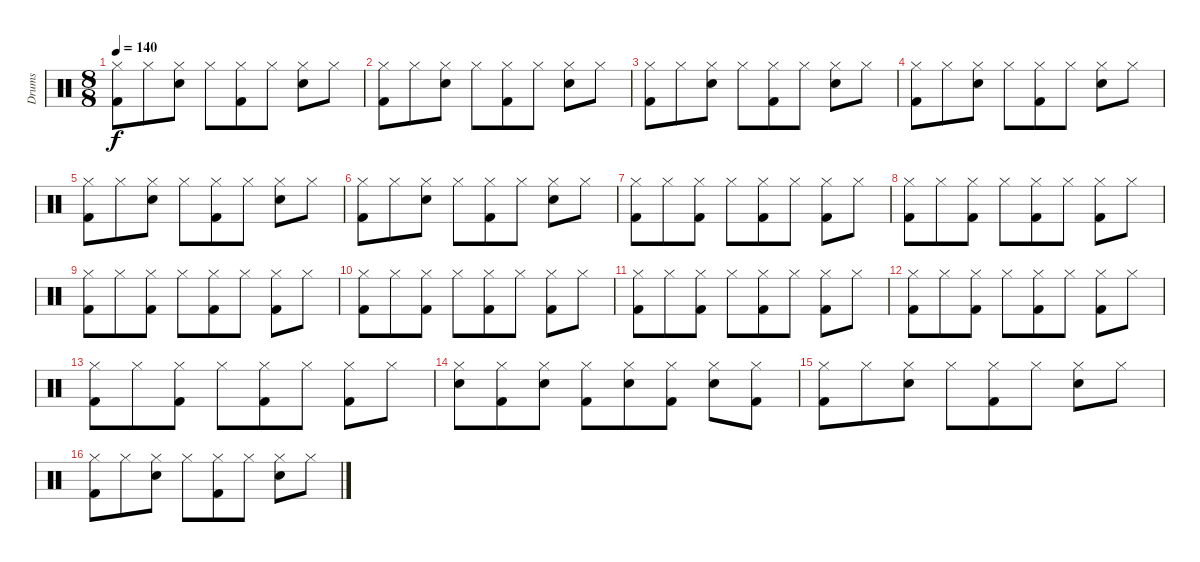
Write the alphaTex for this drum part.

\track ("Drums" "Drums") {instrument percussion}
\staff {score}
\articulation defaults
\ts (8 8)
\tempo 140
\clef neutral
\ks c
("Hi-Hat (closed)" "Kick (hit) 2").8{dy f} "Hi-Hat (closed)".8 ("Hi-Hat (closed)" "Snare (hit) 2").8 "Hi-Hat (closed)".8 ("Hi-Hat (closed)" "Kick (hit) 2").8 "Hi-Hat (closed)".8 ("Hi-Hat (closed)" "Snare (hit) 2").8 "Hi-Hat (closed)".8 |
("Hi-Hat (closed)" "Kick (hit) 2").8 "Hi-Hat (closed)".8 ("Hi-Hat (closed)" "Snare (hit) 2").8 "Hi-Hat (closed)".8 ("Hi-Hat (closed)" "Kick (hit) 2").8 "Hi-Hat (closed)".8 ("Hi-Hat (closed)" "Snare (hit) 2").8 "Hi-Hat (closed)".8 |
("Hi-Hat (closed)" "Kick (hit) 2").8 "Hi-Hat (closed)".8 ("Hi-Hat (closed)" "Snare (hit) 2").8 "Hi-Hat (closed)".8 ("Hi-Hat (closed)" "Kick (hit) 2").8 "Hi-Hat (closed)".8 ("Hi-Hat (closed)" "Snare (hit) 2").8 "Hi-Hat (closed)".8 |
("Hi-Hat (closed)" "Kick (hit) 2").8 "Hi-Hat (closed)".8 ("Hi-Hat (closed)" "Snare (hit) 2").8 "Hi-Hat (closed)".8 ("Hi-Hat (closed)" "Kick (hit) 2").8 "Hi-Hat (closed)".8 ("Hi-Hat (closed)" "Snare (hit) 2").8 "Hi-Hat (closed)".8 |
("Hi-Hat (closed)" "Kick (hit) 2").8 "Hi-Hat (closed)".8 ("Hi-Hat (closed)" "Snare (hit) 2").8 "Hi-Hat (closed)".8 ("Hi-Hat (closed)" "Kick (hit) 2").8 "Hi-Hat (closed)".8 ("Hi-Hat (closed)" "Snare (hit) 2").8 "Hi-Hat (closed)".8 |
("Hi-Hat (closed)" "Kick (hit) 2").8 "Hi-Hat (closed)".8 ("Hi-Hat (closed)" "Snare (hit) 2").8 "Hi-Hat (closed)".8 ("Hi-Hat (closed)" "Kick (hit) 2").8 "Hi-Hat (closed)".8 ("Hi-Hat (closed)" "Snare (hit) 2").8 "Hi-Hat (closed)".8 |
("Hi-Hat (closed)" "Kick (hit) 2").8 "Hi-Hat (closed)".8 ("Hi-Hat (closed)" "Kick (hit) 2").8 "Hi-Hat (closed)".8 ("Hi-Hat (closed)" "Kick (hit) 2").8 "Hi-Hat (closed)".8 ("Hi-Hat (closed)" "Kick (hit) 2").8 "Hi-Hat (closed)".8 |
("Hi-Hat (closed)" "Kick (hit) 2").8 "Hi-Hat (closed)".8 ("Hi-Hat (closed)" "Kick (hit) 2").8 "Hi-Hat (closed)".8 ("Hi-Hat (closed)" "Kick (hit) 2").8 "Hi-Hat (closed)".8 ("Hi-Hat (closed)" "Kick (hit) 2").8 "Hi-Hat (closed)".8 |
("Hi-Hat (closed)" "Kick (hit) 2").8 "Hi-Hat (closed)".8 ("Hi-Hat (closed)" "Kick (hit) 2").8 "Hi-Hat (closed)".8 ("Hi-Hat (closed)" "Kick (hit) 2").8 "Hi-Hat (closed)".8 ("Hi-Hat (closed)" "Kick (hit) 2").8 "Hi-Hat (closed)".8 |
("Hi-Hat (closed)" "Kick (hit) 2").8 "Hi-Hat (closed)".8 ("Hi-Hat (closed)" "Kick (hit) 2").8 "Hi-Hat (closed)".8 ("Hi-Hat (closed)" "Kick (hit) 2").8 "Hi-Hat (closed)".8 ("Hi-Hat (closed)" "Kick (hit) 2").8 "Hi-Hat (closed)".8 |
("Hi-Hat (closed)" "Kick (hit) 2").8 "Hi-Hat (closed)".8 ("Hi-Hat (closed)" "Kick (hit) 2").8 "Hi-Hat (closed)".8 ("Hi-Hat (closed)" "Kick (hit) 2").8 "Hi-Hat (closed)".8 ("Hi-Hat (closed)" "Kick (hit) 2").8 "Hi-Hat (closed)".8 |
("Hi-Hat (closed)" "Kick (hit) 2").8 "Hi-Hat (closed)".8 ("Hi-Hat (closed)" "Kick (hit) 2").8 "Hi-Hat (closed)".8 ("Hi-Hat (closed)" "Kick (hit) 2").8 "Hi-Hat (closed)".8 ("Hi-Hat (closed)" "Kick (hit) 2").8 "Hi-Hat (closed)".8 |
("Hi-Hat (closed)" "Kick (hit) 2").8 "Hi-Hat (closed)".8 ("Hi-Hat (closed)" "Kick (hit) 2").8 "Hi-Hat (closed)".8 ("Hi-Hat (closed)" "Kick (hit) 2").8 "Hi-Hat (closed)".8 ("Hi-Hat (closed)" "Kick (hit) 2").8 "Hi-Hat (closed)".8 |
("Hi-Hat (closed)" "Snare (hit) 2").8 ("Hi-Hat (closed)" "Kick (hit) 2").8 ("Hi-Hat (closed)" "Snare (hit) 2").8 ("Hi-Hat (closed)" "Kick (hit) 2").8 ("Hi-Hat (closed)" "Snare (hit) 2").8 ("Hi-Hat (closed)" "Kick (hit) 2").8 ("Hi-Hat (closed)" "Snare (hit) 2").8 ("Hi-Hat (closed)" "Kick (hit) 2").8 |
("Hi-Hat (closed)" "Kick (hit) 2").8 "Hi-Hat (closed)".8 ("Hi-Hat (closed)" "Snare (hit) 2").8 "Hi-Hat (closed)".8 ("Hi-Hat (closed)" "Kick (hit) 2").8 "Hi-Hat (closed)".8 ("Hi-Hat (closed)" "Snare (hit) 2").8 "Hi-Hat (closed)".8 |
("Hi-Hat (closed)" "Kick (hit) 2").8 "Hi-Hat (closed)".8 ("Hi-Hat (closed)" "Snare (hit) 2").8 "Hi-Hat (closed)".8 ("Hi-Hat (closed)" "Kick (hit) 2").8 "Hi-Hat (closed)".8 ("Hi-Hat (closed)" "Snare (hit) 2").8 "Hi-Hat (closed)".8
